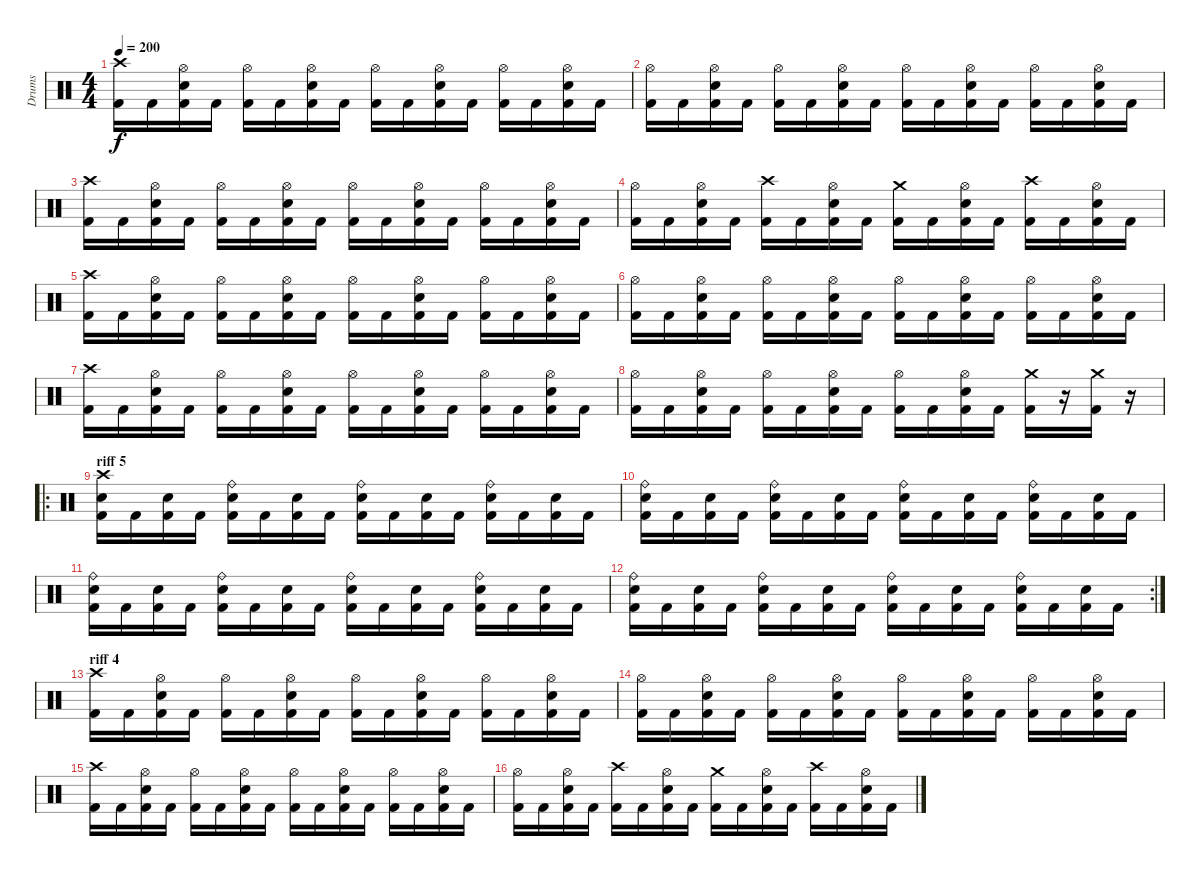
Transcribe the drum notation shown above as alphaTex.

\track ("Drums" "Drums") {instrument percussion}
\staff {score}
\articulation defaults
\ts (4 4)
\tempo 200
\clef neutral
\ks c
("Crash high (hit)" "Kick (hit) 2").16{dy f} "Kick (hit) 2".16 ("Hi-Hat (open)" "Electric Snare (hit)" "Kick (hit) 2").16 "Kick (hit) 2".16 ("Hi-Hat (open)" "Kick (hit) 2").16 "Kick (hit) 2".16 ("Hi-Hat (open)" "Electric Snare (hit)" "Kick (hit) 2").16 "Kick (hit) 2".16 ("Hi-Hat (open)" "Kick (hit) 2").16 "Kick (hit) 2".16 ("Hi-Hat (open)" "Electric Snare (hit)" "Kick (hit) 2").16 "Kick (hit) 2".16 ("Hi-Hat (open)" "Kick (hit) 2").16 "Kick (hit) 2".16 ("Hi-Hat (open)" "Electric Snare (hit)" "Kick (hit) 2").16 "Kick (hit) 2".16 |
("Hi-Hat (open)" "Kick (hit) 2").16 "Kick (hit) 2".16 ("Hi-Hat (open)" "Electric Snare (hit)" "Kick (hit) 2").16 "Kick (hit) 2".16 ("Hi-Hat (open)" "Kick (hit) 2").16 "Kick (hit) 2".16 ("Hi-Hat (open)" "Electric Snare (hit)" "Kick (hit) 2").16 "Kick (hit) 2".16 ("Hi-Hat (open)" "Kick (hit) 2").16 "Kick (hit) 2".16 ("Hi-Hat (open)" "Electric Snare (hit)" "Kick (hit) 2").16 "Kick (hit) 2".16 ("Hi-Hat (open)" "Kick (hit) 2").16 "Kick (hit) 2".16 ("Hi-Hat (open)" "Electric Snare (hit)" "Kick (hit) 2").16 "Kick (hit) 2".16 |
("Crash high (hit)" "Kick (hit) 2").16 "Kick (hit) 2".16 ("Hi-Hat (open)" "Electric Snare (hit)" "Kick (hit) 2").16 "Kick (hit) 2".16 ("Hi-Hat (open)" "Kick (hit) 2").16 "Kick (hit) 2".16 ("Hi-Hat (open)" "Electric Snare (hit)" "Kick (hit) 2").16 "Kick (hit) 2".16 ("Hi-Hat (open)" "Kick (hit) 2").16 "Kick (hit) 2".16 ("Hi-Hat (open)" "Electric Snare (hit)" "Kick (hit) 2").16 "Kick (hit) 2".16 ("Hi-Hat (open)" "Kick (hit) 2").16 "Kick (hit) 2".16 ("Hi-Hat (open)" "Electric Snare (hit)" "Kick (hit) 2").16 "Kick (hit) 2".16 |
("Hi-Hat (open)" "Kick (hit) 2").16 "Kick (hit) 2".16 ("Hi-Hat (open)" "Electric Snare (hit)" "Kick (hit) 2").16 "Kick (hit) 2".16 ("Crash high (hit)" "Kick (hit) 2").16 "Kick (hit) 2".16 ("Hi-Hat (open)" "Electric Snare (hit)" "Kick (hit) 2").16 "Kick (hit) 2".16 ("Crash medium (hit)" "Kick (hit) 2").16 "Kick (hit) 2".16 ("Hi-Hat (open)" "Electric Snare (hit)" "Kick (hit) 2").16 "Kick (hit) 2".16 ("Crash high (hit)" "Kick (hit) 2").16 "Kick (hit) 2".16 ("Hi-Hat (open)" "Electric Snare (hit)" "Kick (hit) 2").16 "Kick (hit) 2".16 |
("Crash high (hit)" "Kick (hit) 2").16 "Kick (hit) 2".16 ("Hi-Hat (open)" "Electric Snare (hit)" "Kick (hit) 2").16 "Kick (hit) 2".16 ("Hi-Hat (open)" "Kick (hit) 2").16 "Kick (hit) 2".16 ("Hi-Hat (open)" "Electric Snare (hit)" "Kick (hit) 2").16 "Kick (hit) 2".16 ("Hi-Hat (open)" "Kick (hit) 2").16 "Kick (hit) 2".16 ("Hi-Hat (open)" "Electric Snare (hit)" "Kick (hit) 2").16 "Kick (hit) 2".16 ("Hi-Hat (open)" "Kick (hit) 2").16 "Kick (hit) 2".16 ("Hi-Hat (open)" "Electric Snare (hit)" "Kick (hit) 2").16 "Kick (hit) 2".16 |
("Hi-Hat (open)" "Kick (hit) 2").16 "Kick (hit) 2".16 ("Hi-Hat (open)" "Electric Snare (hit)" "Kick (hit) 2").16 "Kick (hit) 2".16 ("Hi-Hat (open)" "Kick (hit) 2").16 "Kick (hit) 2".16 ("Hi-Hat (open)" "Electric Snare (hit)" "Kick (hit) 2").16 "Kick (hit) 2".16 ("Hi-Hat (open)" "Kick (hit) 2").16 "Kick (hit) 2".16 ("Hi-Hat (open)" "Electric Snare (hit)" "Kick (hit) 2").16 "Kick (hit) 2".16 ("Hi-Hat (open)" "Kick (hit) 2").16 "Kick (hit) 2".16 ("Hi-Hat (open)" "Electric Snare (hit)" "Kick (hit) 2").16 "Kick (hit) 2".16 |
("Crash high (hit)" "Kick (hit) 2").16 "Kick (hit) 2".16 ("Hi-Hat (open)" "Electric Snare (hit)" "Kick (hit) 2").16 "Kick (hit) 2".16 ("Hi-Hat (open)" "Kick (hit) 2").16 "Kick (hit) 2".16 ("Hi-Hat (open)" "Electric Snare (hit)" "Kick (hit) 2").16 "Kick (hit) 2".16 ("Hi-Hat (open)" "Kick (hit) 2").16 "Kick (hit) 2".16 ("Hi-Hat (open)" "Electric Snare (hit)" "Kick (hit) 2").16 "Kick (hit) 2".16 ("Hi-Hat (open)" "Kick (hit) 2").16 "Kick (hit) 2".16 ("Hi-Hat (open)" "Electric Snare (hit)" "Kick (hit) 2").16 "Kick (hit) 2".16 |
("Hi-Hat (open)" "Kick (hit) 2").16 "Kick (hit) 2".16 ("Hi-Hat (open)" "Electric Snare (hit)" "Kick (hit) 2").16 "Kick (hit) 2".16 ("Hi-Hat (open)" "Kick (hit) 2").16 "Kick (hit) 2".16 ("Hi-Hat (open)" "Electric Snare (hit)" "Kick (hit) 2").16 "Kick (hit) 2".16 ("Hi-Hat (open)" "Kick (hit) 2").16 "Kick (hit) 2".16 ("Hi-Hat (open)" "Electric Snare (hit)" "Kick (hit) 2").16 "Kick (hit) 2".16 ("Crash medium (hit)" "Kick (hit) 2").16 r.16 ("Crash medium (hit)" "Kick (hit) 2").16 r.16 |
\ro
\section ("" "riff 5")
("Crash high (hit)" "Electric Snare (hit)" "Kick (hit) 2").16 "Kick (hit) 2".16 ("Electric Snare (hit)" "Kick (hit) 2").16 "Kick (hit) 2".16 ("Ride (bell)" "Electric Snare (hit)" "Kick (hit) 2").16 "Kick (hit) 2".16 ("Electric Snare (hit)" "Kick (hit) 2").16 "Kick (hit) 2".16 ("Ride (bell)" "Electric Snare (hit)" "Kick (hit) 2").16 "Kick (hit) 2".16 ("Electric Snare (hit)" "Kick (hit) 2").16 "Kick (hit) 2".16 ("Ride (bell)" "Electric Snare (hit)" "Kick (hit) 2").16 "Kick (hit) 2".16 ("Electric Snare (hit)" "Kick (hit) 2").16 "Kick (hit) 2".16 |
("Ride (bell)" "Electric Snare (hit)" "Kick (hit) 2").16 "Kick (hit) 2".16 ("Electric Snare (hit)" "Kick (hit) 2").16 "Kick (hit) 2".16 ("Ride (bell)" "Electric Snare (hit)" "Kick (hit) 2").16 "Kick (hit) 2".16 ("Electric Snare (hit)" "Kick (hit) 2").16 "Kick (hit) 2".16 ("Ride (bell)" "Electric Snare (hit)" "Kick (hit) 2").16 "Kick (hit) 2".16 ("Electric Snare (hit)" "Kick (hit) 2").16 "Kick (hit) 2".16 ("Ride (bell)" "Electric Snare (hit)" "Kick (hit) 2").16 "Kick (hit) 2".16 ("Electric Snare (hit)" "Kick (hit) 2").16 "Kick (hit) 2".16 |
("Ride (bell)" "Electric Snare (hit)" "Kick (hit) 2").16 "Kick (hit) 2".16 ("Electric Snare (hit)" "Kick (hit) 2").16 "Kick (hit) 2".16 ("Ride (bell)" "Electric Snare (hit)" "Kick (hit) 2").16 "Kick (hit) 2".16 ("Electric Snare (hit)" "Kick (hit) 2").16 "Kick (hit) 2".16 ("Ride (bell)" "Electric Snare (hit)" "Kick (hit) 2").16 "Kick (hit) 2".16 ("Electric Snare (hit)" "Kick (hit) 2").16 "Kick (hit) 2".16 ("Ride (bell)" "Electric Snare (hit)" "Kick (hit) 2").16 "Kick (hit) 2".16 ("Electric Snare (hit)" "Kick (hit) 2").16 "Kick (hit) 2".16 |
\rc 2
("Ride (bell)" "Electric Snare (hit)" "Kick (hit) 2").16 "Kick (hit) 2".16 ("Electric Snare (hit)" "Kick (hit) 2").16 "Kick (hit) 2".16 ("Ride (bell)" "Electric Snare (hit)" "Kick (hit) 2").16 "Kick (hit) 2".16 ("Electric Snare (hit)" "Kick (hit) 2").16 "Kick (hit) 2".16 ("Ride (bell)" "Electric Snare (hit)" "Kick (hit) 2").16 "Kick (hit) 2".16 ("Electric Snare (hit)" "Kick (hit) 2").16 "Kick (hit) 2".16 ("Ride (bell)" "Electric Snare (hit)" "Kick (hit) 2").16 "Kick (hit) 2".16 ("Electric Snare (hit)" "Kick (hit) 2").16 "Kick (hit) 2".16 |
\section ("" "riff 4")
("Crash high (hit)" "Kick (hit) 2").16 "Kick (hit) 2".16 ("Hi-Hat (open)" "Electric Snare (hit)" "Kick (hit) 2").16 "Kick (hit) 2".16 ("Hi-Hat (open)" "Kick (hit) 2").16 "Kick (hit) 2".16 ("Hi-Hat (open)" "Electric Snare (hit)" "Kick (hit) 2").16 "Kick (hit) 2".16 ("Hi-Hat (open)" "Kick (hit) 2").16 "Kick (hit) 2".16 ("Hi-Hat (open)" "Electric Snare (hit)" "Kick (hit) 2").16 "Kick (hit) 2".16 ("Hi-Hat (open)" "Kick (hit) 2").16 "Kick (hit) 2".16 ("Hi-Hat (open)" "Electric Snare (hit)" "Kick (hit) 2").16 "Kick (hit) 2".16 |
("Hi-Hat (open)" "Kick (hit) 2").16 "Kick (hit) 2".16 ("Hi-Hat (open)" "Electric Snare (hit)" "Kick (hit) 2").16 "Kick (hit) 2".16 ("Hi-Hat (open)" "Kick (hit) 2").16 "Kick (hit) 2".16 ("Hi-Hat (open)" "Electric Snare (hit)" "Kick (hit) 2").16 "Kick (hit) 2".16 ("Hi-Hat (open)" "Kick (hit) 2").16 "Kick (hit) 2".16 ("Hi-Hat (open)" "Electric Snare (hit)" "Kick (hit) 2").16 "Kick (hit) 2".16 ("Hi-Hat (open)" "Kick (hit) 2").16 "Kick (hit) 2".16 ("Hi-Hat (open)" "Electric Snare (hit)" "Kick (hit) 2").16 "Kick (hit) 2".16 |
("Crash high (hit)" "Kick (hit) 2").16 "Kick (hit) 2".16 ("Hi-Hat (open)" "Electric Snare (hit)" "Kick (hit) 2").16 "Kick (hit) 2".16 ("Hi-Hat (open)" "Kick (hit) 2").16 "Kick (hit) 2".16 ("Hi-Hat (open)" "Electric Snare (hit)" "Kick (hit) 2").16 "Kick (hit) 2".16 ("Hi-Hat (open)" "Kick (hit) 2").16 "Kick (hit) 2".16 ("Hi-Hat (open)" "Electric Snare (hit)" "Kick (hit) 2").16 "Kick (hit) 2".16 ("Hi-Hat (open)" "Kick (hit) 2").16 "Kick (hit) 2".16 ("Hi-Hat (open)" "Electric Snare (hit)" "Kick (hit) 2").16 "Kick (hit) 2".16 |
("Hi-Hat (open)" "Kick (hit) 2").16 "Kick (hit) 2".16 ("Hi-Hat (open)" "Electric Snare (hit)" "Kick (hit) 2").16 "Kick (hit) 2".16 ("Crash high (hit)" "Kick (hit) 2").16 "Kick (hit) 2".16 ("Hi-Hat (open)" "Electric Snare (hit)" "Kick (hit) 2").16 "Kick (hit) 2".16 ("Crash medium (hit)" "Kick (hit) 2").16 "Kick (hit) 2".16 ("Hi-Hat (open)" "Electric Snare (hit)" "Kick (hit) 2").16 "Kick (hit) 2".16 ("Crash high (hit)" "Kick (hit) 2").16 "Kick (hit) 2".16 ("Hi-Hat (open)" "Electric Snare (hit)" "Kick (hit) 2").16 "Kick (hit) 2".16
